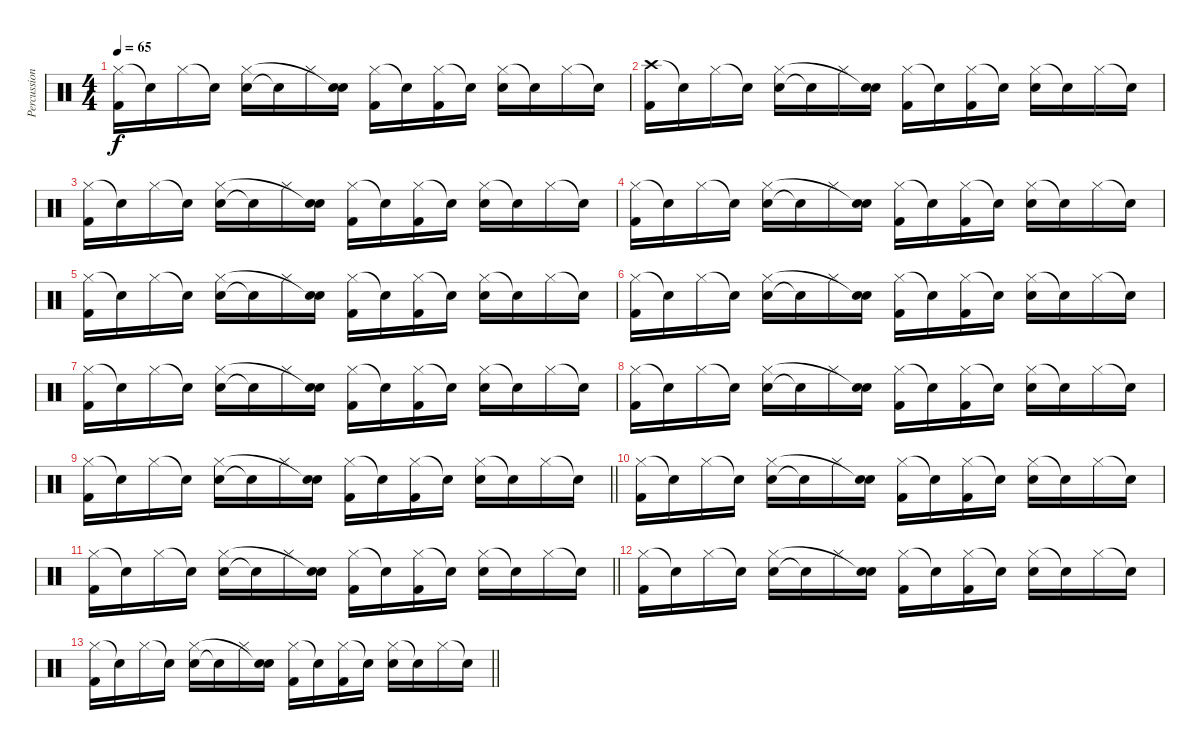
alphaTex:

\track ("Percussion" "Percussion") {instrument percussion}
\staff {score}
\articulation defaults
\ts (4 4)
\tempo 65
\clef neutral
\ks c
("Hi-Hat (closed)" "Kick (hit) 2").16{dy f} "Snare (hit)"{t}.16 "Hi-Hat (closed)".16 "Snare (hit)"{t}.16 ("Electric Snare (hit)" "Hi-Hat (closed)").16 "Snare (hit)"{t}.16 "Hi-Hat (closed)".16 ("Electric Snare (hit)" "Snare (hit)"{t}).16 ("Hi-Hat (closed)" "Kick (hit) 2").16 "Snare (hit)"{t}.16 ("Hi-Hat (closed)" "Kick (hit) 2").16 "Snare (hit)"{t}.16 ("Hi-Hat (closed)" "Electric Snare (hit)").16 "Snare (hit)"{t}.16 "Hi-Hat (closed)".16 "Snare (hit)"{t}.16 |
("Crash high (hit)" "Kick (hit) 2").16 "Snare (hit)"{t}.16 "Hi-Hat (closed)".16 "Snare (hit)"{t}.16 ("Electric Snare (hit)" "Hi-Hat (closed)").16 "Snare (hit)"{t}.16 "Hi-Hat (closed)".16 ("Electric Snare (hit)" "Snare (hit)"{t}).16 ("Hi-Hat (closed)" "Kick (hit) 2").16 "Snare (hit)"{t}.16 ("Hi-Hat (closed)" "Kick (hit) 2").16 "Snare (hit)"{t}.16 ("Hi-Hat (closed)" "Electric Snare (hit)").16 "Snare (hit)"{t}.16 "Hi-Hat (closed)".16 "Snare (hit)"{t}.16 |
("Hi-Hat (closed)" "Kick (hit) 2").16 "Snare (hit)"{t}.16 "Hi-Hat (closed)".16 "Snare (hit)"{t}.16 ("Electric Snare (hit)" "Hi-Hat (closed)").16 "Snare (hit)"{t}.16 "Hi-Hat (closed)".16 ("Electric Snare (hit)" "Snare (hit)"{t}).16 ("Hi-Hat (closed)" "Kick (hit) 2").16 "Snare (hit)"{t}.16 ("Hi-Hat (closed)" "Kick (hit) 2").16 "Snare (hit)"{t}.16 ("Hi-Hat (closed)" "Electric Snare (hit)").16 "Snare (hit)"{t}.16 "Hi-Hat (closed)".16 "Snare (hit)"{t}.16 |
("Hi-Hat (closed)" "Kick (hit) 2").16 "Snare (hit)"{t}.16 "Hi-Hat (closed)".16 "Snare (hit)"{t}.16 ("Electric Snare (hit)" "Hi-Hat (closed)").16 "Snare (hit)"{t}.16 "Hi-Hat (closed)".16 ("Electric Snare (hit)" "Snare (hit)"{t}).16 ("Hi-Hat (closed)" "Kick (hit) 2").16 "Snare (hit)"{t}.16 ("Hi-Hat (closed)" "Kick (hit) 2").16 "Snare (hit)"{t}.16 ("Hi-Hat (closed)" "Electric Snare (hit)").16 "Snare (hit)"{t}.16 "Hi-Hat (closed)".16 "Snare (hit)"{t}.16 |
("Hi-Hat (closed)" "Kick (hit) 2").16 "Snare (hit)"{t}.16 "Hi-Hat (closed)".16 "Snare (hit)"{t}.16 ("Electric Snare (hit)" "Hi-Hat (closed)").16 "Snare (hit)"{t}.16 "Hi-Hat (closed)".16 ("Electric Snare (hit)" "Snare (hit)"{t}).16 ("Hi-Hat (closed)" "Kick (hit) 2").16 "Snare (hit)"{t}.16 ("Hi-Hat (closed)" "Kick (hit) 2").16 "Snare (hit)"{t}.16 ("Hi-Hat (closed)" "Electric Snare (hit)").16 "Snare (hit)"{t}.16 "Hi-Hat (closed)".16 "Snare (hit)"{t}.16 |
("Hi-Hat (closed)" "Kick (hit) 2").16 "Snare (hit)"{t}.16 "Hi-Hat (closed)".16 "Snare (hit)"{t}.16 ("Electric Snare (hit)" "Hi-Hat (closed)").16 "Snare (hit)"{t}.16 "Hi-Hat (closed)".16 ("Electric Snare (hit)" "Snare (hit)"{t}).16 ("Hi-Hat (closed)" "Kick (hit) 2").16 "Snare (hit)"{t}.16 ("Hi-Hat (closed)" "Kick (hit) 2").16 "Snare (hit)"{t}.16 ("Hi-Hat (closed)" "Electric Snare (hit)").16 "Snare (hit)"{t}.16 "Hi-Hat (closed)".16 "Snare (hit)"{t}.16 |
("Hi-Hat (closed)" "Kick (hit) 2").16 "Snare (hit)"{t}.16 "Hi-Hat (closed)".16 "Snare (hit)"{t}.16 ("Electric Snare (hit)" "Hi-Hat (closed)").16 "Snare (hit)"{t}.16 "Hi-Hat (closed)".16 ("Electric Snare (hit)" "Snare (hit)"{t}).16 ("Hi-Hat (closed)" "Kick (hit) 2").16 "Snare (hit)"{t}.16 ("Hi-Hat (closed)" "Kick (hit) 2").16 "Snare (hit)"{t}.16 ("Hi-Hat (closed)" "Electric Snare (hit)").16 "Snare (hit)"{t}.16 "Hi-Hat (closed)".16 "Snare (hit)"{t}.16 |
("Hi-Hat (closed)" "Kick (hit) 2").16 "Snare (hit)"{t}.16 "Hi-Hat (closed)".16 "Snare (hit)"{t}.16 ("Electric Snare (hit)" "Hi-Hat (closed)").16 "Snare (hit)"{t}.16 "Hi-Hat (closed)".16 ("Electric Snare (hit)" "Snare (hit)"{t}).16 ("Hi-Hat (closed)" "Kick (hit) 2").16 "Snare (hit)"{t}.16 ("Hi-Hat (closed)" "Kick (hit) 2").16 "Snare (hit)"{t}.16 ("Hi-Hat (closed)" "Electric Snare (hit)").16 "Snare (hit)"{t}.16 "Hi-Hat (closed)".16 "Snare (hit)"{t}.16 |
\barLineRight lightlight
("Hi-Hat (closed)" "Kick (hit) 2").16 "Snare (hit)"{t}.16 "Hi-Hat (closed)".16 "Snare (hit)"{t}.16 ("Electric Snare (hit)" "Hi-Hat (closed)").16 "Snare (hit)"{t}.16 "Hi-Hat (closed)".16 ("Electric Snare (hit)" "Snare (hit)"{t}).16 ("Hi-Hat (closed)" "Kick (hit) 2").16 "Snare (hit)"{t}.16 ("Hi-Hat (closed)" "Kick (hit) 2").16 "Snare (hit)"{t}.16 ("Hi-Hat (closed)" "Electric Snare (hit)").16 "Snare (hit)"{t}.16 "Hi-Hat (closed)".16 "Snare (hit)"{t}.16 |
("Hi-Hat (closed)" "Kick (hit) 2").16 "Snare (hit)"{t}.16 "Hi-Hat (closed)".16 "Snare (hit)"{t}.16 ("Electric Snare (hit)" "Hi-Hat (closed)").16 "Snare (hit)"{t}.16 "Hi-Hat (closed)".16 ("Electric Snare (hit)" "Snare (hit)"{t}).16 ("Hi-Hat (closed)" "Kick (hit) 2").16 "Snare (hit)"{t}.16 ("Hi-Hat (closed)" "Kick (hit) 2").16 "Snare (hit)"{t}.16 ("Hi-Hat (closed)" "Electric Snare (hit)").16 "Snare (hit)"{t}.16 "Hi-Hat (closed)".16 "Snare (hit)"{t}.16 |
\barLineRight lightlight
("Hi-Hat (closed)" "Kick (hit) 2").16 "Snare (hit)"{t}.16 "Hi-Hat (closed)".16 "Snare (hit)"{t}.16 ("Electric Snare (hit)" "Hi-Hat (closed)").16 "Snare (hit)"{t}.16 "Hi-Hat (closed)".16 ("Electric Snare (hit)" "Snare (hit)"{t}).16 ("Hi-Hat (closed)" "Kick (hit) 2").16 "Snare (hit)"{t}.16 ("Hi-Hat (closed)" "Kick (hit) 2").16 "Snare (hit)"{t}.16 ("Hi-Hat (closed)" "Electric Snare (hit)").16 "Snare (hit)"{t}.16 "Hi-Hat (closed)".16 "Snare (hit)"{t}.16 |
("Hi-Hat (closed)" "Kick (hit) 2").16 "Snare (hit)"{t}.16 "Hi-Hat (closed)".16 "Snare (hit)"{t}.16 ("Electric Snare (hit)" "Hi-Hat (closed)").16 "Snare (hit)"{t}.16 "Hi-Hat (closed)".16 ("Electric Snare (hit)" "Snare (hit)"{t}).16 ("Hi-Hat (closed)" "Kick (hit) 2").16 "Snare (hit)"{t}.16 ("Hi-Hat (closed)" "Kick (hit) 2").16 "Snare (hit)"{t}.16 ("Hi-Hat (closed)" "Electric Snare (hit)").16 "Snare (hit)"{t}.16 "Hi-Hat (closed)".16 "Snare (hit)"{t}.16 |
\barLineRight lightlight
("Hi-Hat (closed)" "Kick (hit) 2").16 "Snare (hit)"{t}.16 "Hi-Hat (closed)".16 "Snare (hit)"{t}.16 ("Electric Snare (hit)" "Hi-Hat (closed)").16 "Snare (hit)"{t}.16 "Hi-Hat (closed)".16 ("Electric Snare (hit)" "Snare (hit)"{t}).16 ("Hi-Hat (closed)" "Kick (hit) 2").16 "Snare (hit)"{t}.16 ("Hi-Hat (closed)" "Kick (hit) 2").16 "Snare (hit)"{t}.16 ("Hi-Hat (closed)" "Electric Snare (hit)").16 "Snare (hit)"{t}.16 "Hi-Hat (closed)".16 "Snare (hit)"{t}.16
